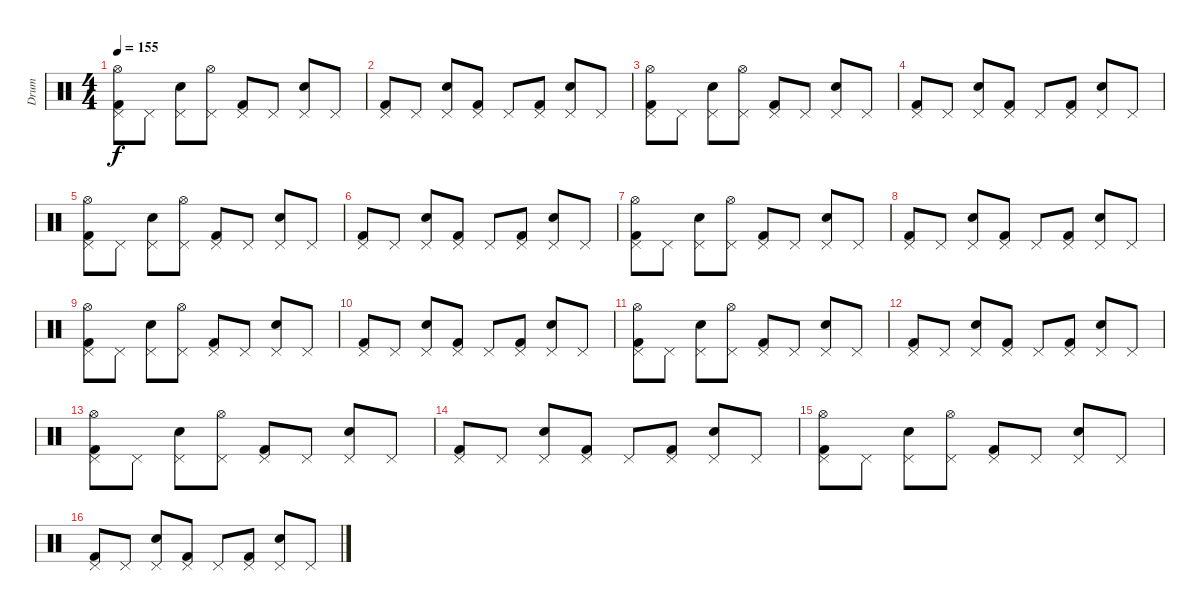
\track ("Drum" "Drum") {instrument percussion}
\staff {score}
\articulation defaults
\ts (4 4)
\tempo 155
\clef neutral
\ks c
("Kick (hit) 2" "Pedal Hi-Hat (hit)" "Hi-Hat (open)").8{dy f} "Pedal Hi-Hat (hit)".8 ("Electric Snare (hit)" "Pedal Hi-Hat (hit)").8 ("Pedal Hi-Hat (hit)" "Hi-Hat (open)").8 ("Kick (hit) 2" "Pedal Hi-Hat (hit)").8 "Pedal Hi-Hat (hit)".8 ("Electric Snare (hit)" "Pedal Hi-Hat (hit)").8 "Pedal Hi-Hat (hit)".8 |
("Kick (hit) 2" "Pedal Hi-Hat (hit)").8 "Pedal Hi-Hat (hit)".8 ("Electric Snare (hit)" "Pedal Hi-Hat (hit)").8 ("Kick (hit) 2" "Pedal Hi-Hat (hit)").8 "Pedal Hi-Hat (hit)".8 ("Kick (hit) 2" "Pedal Hi-Hat (hit)").8 ("Electric Snare (hit)" "Pedal Hi-Hat (hit)").8 "Pedal Hi-Hat (hit)".8 |
("Kick (hit) 2" "Pedal Hi-Hat (hit)" "Hi-Hat (open)").8 "Pedal Hi-Hat (hit)".8 ("Electric Snare (hit)" "Pedal Hi-Hat (hit)").8 ("Pedal Hi-Hat (hit)" "Hi-Hat (open)").8 ("Kick (hit) 2" "Pedal Hi-Hat (hit)").8 "Pedal Hi-Hat (hit)".8 ("Electric Snare (hit)" "Pedal Hi-Hat (hit)").8 "Pedal Hi-Hat (hit)".8 |
("Kick (hit) 2" "Pedal Hi-Hat (hit)").8 "Pedal Hi-Hat (hit)".8 ("Electric Snare (hit)" "Pedal Hi-Hat (hit)").8 ("Kick (hit) 2" "Pedal Hi-Hat (hit)").8 "Pedal Hi-Hat (hit)".8 ("Kick (hit) 2" "Pedal Hi-Hat (hit)").8 ("Electric Snare (hit)" "Pedal Hi-Hat (hit)").8 "Pedal Hi-Hat (hit)".8 |
("Kick (hit) 2" "Pedal Hi-Hat (hit)" "Hi-Hat (open)").8 "Pedal Hi-Hat (hit)".8 ("Electric Snare (hit)" "Pedal Hi-Hat (hit)").8 ("Pedal Hi-Hat (hit)" "Hi-Hat (open)").8 ("Kick (hit) 2" "Pedal Hi-Hat (hit)").8 "Pedal Hi-Hat (hit)".8 ("Electric Snare (hit)" "Pedal Hi-Hat (hit)").8 "Pedal Hi-Hat (hit)".8 |
("Kick (hit) 2" "Pedal Hi-Hat (hit)").8 "Pedal Hi-Hat (hit)".8 ("Electric Snare (hit)" "Pedal Hi-Hat (hit)").8 ("Kick (hit) 2" "Pedal Hi-Hat (hit)").8 "Pedal Hi-Hat (hit)".8 ("Kick (hit) 2" "Pedal Hi-Hat (hit)").8 ("Electric Snare (hit)" "Pedal Hi-Hat (hit)").8 "Pedal Hi-Hat (hit)".8 |
("Kick (hit) 2" "Pedal Hi-Hat (hit)" "Hi-Hat (open)").8 "Pedal Hi-Hat (hit)".8 ("Electric Snare (hit)" "Pedal Hi-Hat (hit)").8 ("Pedal Hi-Hat (hit)" "Hi-Hat (open)").8 ("Kick (hit) 2" "Pedal Hi-Hat (hit)").8 "Pedal Hi-Hat (hit)".8 ("Electric Snare (hit)" "Pedal Hi-Hat (hit)").8 "Pedal Hi-Hat (hit)".8 |
("Kick (hit) 2" "Pedal Hi-Hat (hit)").8 "Pedal Hi-Hat (hit)".8 ("Electric Snare (hit)" "Pedal Hi-Hat (hit)").8 ("Kick (hit) 2" "Pedal Hi-Hat (hit)").8 "Pedal Hi-Hat (hit)".8 ("Kick (hit) 2" "Pedal Hi-Hat (hit)").8 ("Electric Snare (hit)" "Pedal Hi-Hat (hit)").8 "Pedal Hi-Hat (hit)".8 |
("Kick (hit) 2" "Pedal Hi-Hat (hit)" "Hi-Hat (open)").8 "Pedal Hi-Hat (hit)".8 ("Electric Snare (hit)" "Pedal Hi-Hat (hit)").8 ("Pedal Hi-Hat (hit)" "Hi-Hat (open)").8 ("Kick (hit) 2" "Pedal Hi-Hat (hit)").8 "Pedal Hi-Hat (hit)".8 ("Electric Snare (hit)" "Pedal Hi-Hat (hit)").8 "Pedal Hi-Hat (hit)".8 |
("Kick (hit) 2" "Pedal Hi-Hat (hit)").8 "Pedal Hi-Hat (hit)".8 ("Electric Snare (hit)" "Pedal Hi-Hat (hit)").8 ("Kick (hit) 2" "Pedal Hi-Hat (hit)").8 "Pedal Hi-Hat (hit)".8 ("Kick (hit) 2" "Pedal Hi-Hat (hit)").8 ("Electric Snare (hit)" "Pedal Hi-Hat (hit)").8 "Pedal Hi-Hat (hit)".8 |
("Kick (hit) 2" "Pedal Hi-Hat (hit)" "Hi-Hat (open)").8 "Pedal Hi-Hat (hit)".8 ("Electric Snare (hit)" "Pedal Hi-Hat (hit)").8 ("Pedal Hi-Hat (hit)" "Hi-Hat (open)").8 ("Kick (hit) 2" "Pedal Hi-Hat (hit)").8 "Pedal Hi-Hat (hit)".8 ("Electric Snare (hit)" "Pedal Hi-Hat (hit)").8 "Pedal Hi-Hat (hit)".8 |
("Kick (hit) 2" "Pedal Hi-Hat (hit)").8 "Pedal Hi-Hat (hit)".8 ("Electric Snare (hit)" "Pedal Hi-Hat (hit)").8 ("Kick (hit) 2" "Pedal Hi-Hat (hit)").8 "Pedal Hi-Hat (hit)".8 ("Kick (hit) 2" "Pedal Hi-Hat (hit)").8 ("Electric Snare (hit)" "Pedal Hi-Hat (hit)").8 "Pedal Hi-Hat (hit)".8 |
("Kick (hit) 2" "Pedal Hi-Hat (hit)" "Hi-Hat (open)").8 "Pedal Hi-Hat (hit)".8 ("Electric Snare (hit)" "Pedal Hi-Hat (hit)").8 ("Pedal Hi-Hat (hit)" "Hi-Hat (open)").8 ("Kick (hit) 2" "Pedal Hi-Hat (hit)").8 "Pedal Hi-Hat (hit)".8 ("Electric Snare (hit)" "Pedal Hi-Hat (hit)").8 "Pedal Hi-Hat (hit)".8 |
("Kick (hit) 2" "Pedal Hi-Hat (hit)").8 "Pedal Hi-Hat (hit)".8 ("Electric Snare (hit)" "Pedal Hi-Hat (hit)").8 ("Kick (hit) 2" "Pedal Hi-Hat (hit)").8 "Pedal Hi-Hat (hit)".8 ("Kick (hit) 2" "Pedal Hi-Hat (hit)").8 ("Electric Snare (hit)" "Pedal Hi-Hat (hit)").8 "Pedal Hi-Hat (hit)".8 |
("Kick (hit) 2" "Pedal Hi-Hat (hit)" "Hi-Hat (open)").8 "Pedal Hi-Hat (hit)".8 ("Electric Snare (hit)" "Pedal Hi-Hat (hit)").8 ("Pedal Hi-Hat (hit)" "Hi-Hat (open)").8 ("Kick (hit) 2" "Pedal Hi-Hat (hit)").8 "Pedal Hi-Hat (hit)".8 ("Electric Snare (hit)" "Pedal Hi-Hat (hit)").8 "Pedal Hi-Hat (hit)".8 |
("Kick (hit) 2" "Pedal Hi-Hat (hit)").8 "Pedal Hi-Hat (hit)".8 ("Electric Snare (hit)" "Pedal Hi-Hat (hit)").8 ("Kick (hit) 2" "Pedal Hi-Hat (hit)").8 "Pedal Hi-Hat (hit)".8 ("Kick (hit) 2" "Pedal Hi-Hat (hit)").8 ("Electric Snare (hit)" "Pedal Hi-Hat (hit)").8 "Pedal Hi-Hat (hit)".8
